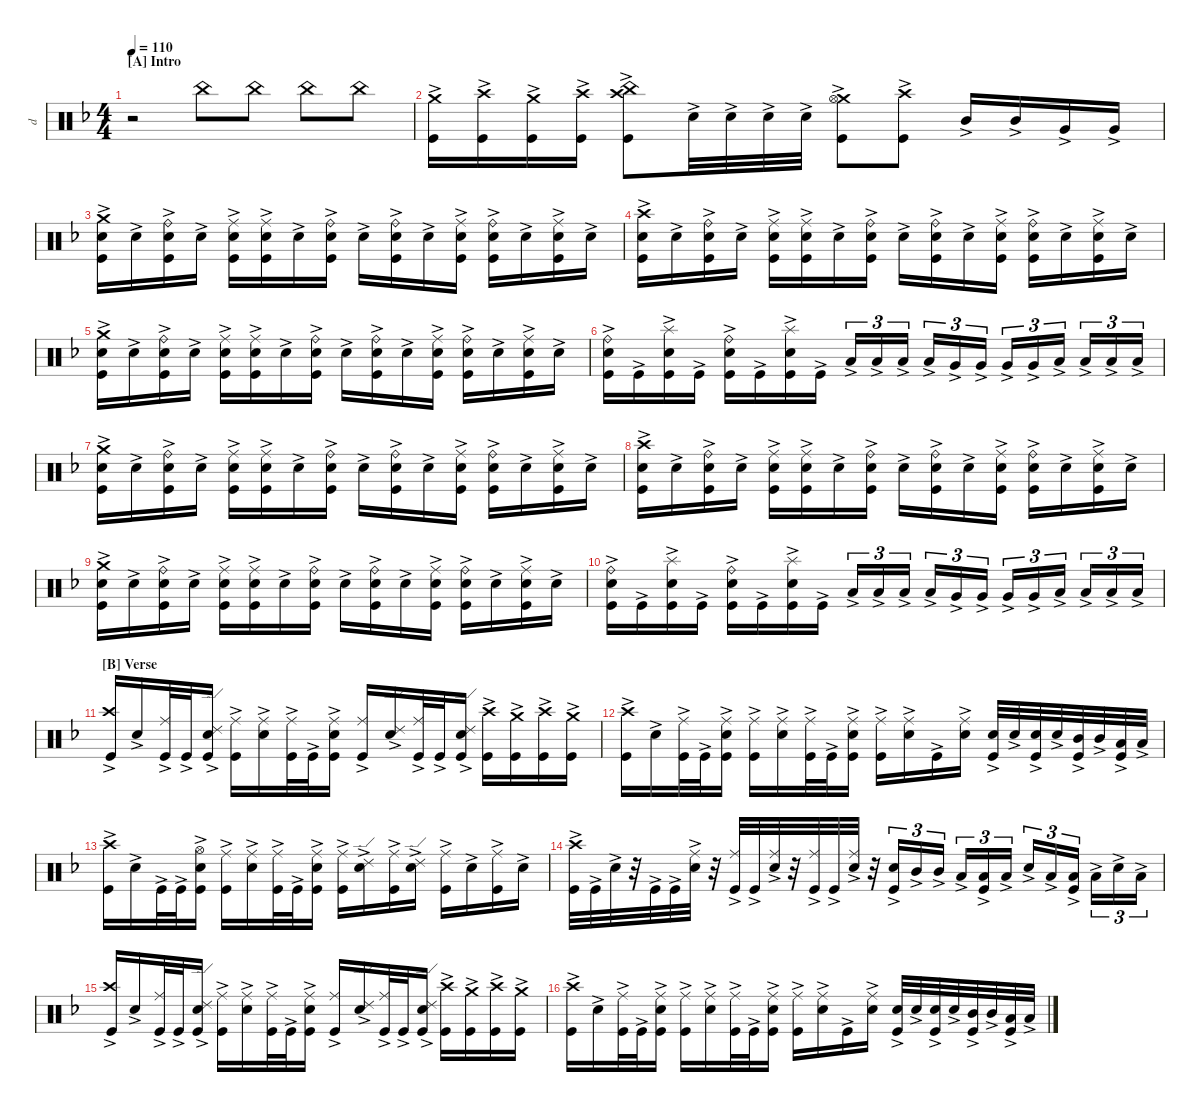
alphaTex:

\defaultSystemsLayout 4
\hideDynamics
\bracketExtendMode nobrackets
\otherSystemsTrackNameOrientation horizontal
\track ("Drumkit" "d") {instrument percussion}
\staff {score}
\articulation defaults
\ts (4 4)
\section ("A" "Intro")
\tempo 110
\clef neutral
\ks dminor
r.2{dy f beam Down} "China (hit)"{acc forcenatural}.8{beam Down} "China (hit)"{acc forcenatural}.8{beam Down} "China (hit)"{acc forcenatural}.8{beam Down} "China (hit)"{acc forcenatural}.8{beam Down} |
("Crash medium (hit)"{ac acc forcenatural} "Kick (hit)"{ac acc forcenatural}).16{dy mf beam Down} ("Crash high (hit)"{ac acc forcenatural} "Kick (hit)"{ac acc forcenatural}).16{beam Down} ("Crash medium (hit)"{ac acc forcenatural} "Kick (hit)"{ac acc forcenatural}).16{beam Down} ("Crash high (hit)"{ac acc forcenatural} "Kick (hit)"{ac acc forcenatural}).16{beam Down} ("China (hit)"{ac acc forcenatural} "Crash high (hit)"{ac acc forcenatural} "Kick (hit)"{ac acc forcenatural}).8{beam Down} "Snare (hit) 2"{ac acc forcenatural}.32{beam Down} "Snare (hit) 2"{ac acc forcenatural}.32{beam Down} "Snare (hit) 2"{ac acc forcenatural}.32{beam Down} "Snare (hit) 2"{ac acc forcenatural}.32{beam Down} ("Crash medium (hit)"{ac acc forcenatural} "Hi-Hat (open)"{ac acc forcenatural} "Kick (hit)"{ac acc forcenatural}).8{beam Down} ("Crash high (hit)"{ac acc forcenatural} "Kick (hit)"{ac acc forcenatural}).8{dy ff beam Down} "Mid Tom (hit)"{ac acc forcenatural}.16{dy mf beam Up} "Mid Tom (hit)"{ac acc forcenatural}.16{beam Up} "Very Low Tom (hit)"{ac acc forcenatural}.16{beam Up} "Very Low Tom (hit)"{ac acc forcenatural}.16{beam Up} |
("Crash medium (hit)"{ac acc forcenatural} "Snare (hit) 2"{ac acc forcenatural} "Kick (hit)"{ac acc forcenatural}).16{beam Down} "Snare (hit) 2"{ac acc forcenatural}.16{beam Down} ("Ride (bell)"{ac acc forcenatural} "Snare (hit) 2"{ac acc forcenatural} "Kick (hit)"{ac acc forcenatural}).16{beam Down} "Snare (hit) 2"{ac acc forcenatural}.16{beam Down} ("Ride (middle)"{ac acc forcenatural} "Snare (hit) 2"{ac acc forcenatural} "Kick (hit)"{ac acc forcenatural}).16{beam Down} ("Ride (middle)"{ac acc forcenatural} "Snare (hit) 2"{ac acc forcenatural} "Kick (hit)"{ac acc forcenatural}).16{beam Down} "Snare (hit) 2"{ac acc forcenatural}.16{beam Down} ("Ride (bell)"{ac acc forcenatural} "Snare (hit) 2"{ac acc forcenatural} "Kick (hit)"{ac acc forcenatural}).16{beam Down} "Snare (hit) 2"{ac acc forcenatural}.16{beam Down} ("Ride (bell)"{ac acc forcenatural} "Snare (hit) 2"{ac acc forcenatural} "Kick (hit)"{ac acc forcenatural}).16{beam Down} "Snare (hit) 2"{ac acc forcenatural}.16{beam Down} ("Ride (middle)"{ac acc forcenatural} "Snare (hit) 2"{ac acc forcenatural} "Kick (hit)"{ac acc forcenatural}).16{beam Down} ("Ride (bell)"{ac acc forcenatural} "Snare (hit) 2"{ac acc forcenatural} "Kick (hit)"{ac acc forcenatural}).16{beam Down} "Snare (hit) 2"{ac acc forcenatural}.16{beam Down} ("Ride (middle)"{ac acc forcenatural} "Snare (hit) 2"{ac acc forcenatural} "Kick (hit)"{ac acc forcenatural}).16{beam Down} "Snare (hit) 2"{ac acc forcenatural}.16{beam Down} |
("Crash high (hit)"{ac acc forcenatural} "Snare (hit) 2"{ac acc forcenatural} "Kick (hit)"{ac acc forcenatural}).16{beam Down} "Snare (hit) 2"{ac acc forcenatural}.16{beam Down} ("Ride (bell)"{ac acc forcenatural} "Snare (hit) 2"{ac acc forcenatural} "Kick (hit)"{ac acc forcenatural}).16{beam Down} "Snare (hit) 2"{ac acc forcenatural}.16{beam Down} ("Ride (middle)"{ac acc forcenatural} "Snare (hit) 2"{ac acc forcenatural} "Kick (hit)"{ac acc forcenatural}).16{beam Down} ("Ride (middle)"{ac acc forcenatural} "Snare (hit) 2"{ac acc forcenatural} "Kick (hit)"{ac acc forcenatural}).16{beam Down} "Snare (hit) 2"{ac acc forcenatural}.16{beam Down} ("Ride (bell)"{ac acc forcenatural} "Snare (hit) 2"{ac acc forcenatural} "Kick (hit)"{ac acc forcenatural}).16{beam Down} "Snare (hit) 2"{ac acc forcenatural}.16{beam Down} ("Ride (bell)"{ac acc forcenatural} "Snare (hit) 2"{ac acc forcenatural} "Kick (hit)"{ac acc forcenatural}).16{beam Down} "Snare (hit) 2"{ac acc forcenatural}.16{beam Down} ("Ride (middle)"{ac acc forcenatural} "Snare (hit) 2"{ac acc forcenatural} "Kick (hit)"{ac acc forcenatural}).16{beam Down} ("Ride (bell)"{ac acc forcenatural} "Snare (hit) 2"{ac acc forcenatural} "Kick (hit)"{ac acc forcenatural}).16{beam Down} "Snare (hit) 2"{ac acc forcenatural}.16{beam Down} ("Ride (middle)"{ac acc forcenatural} "Snare (hit) 2"{ac acc forcenatural} "Kick (hit)"{ac acc forcenatural}).16{beam Down} "Snare (hit) 2"{ac acc forcenatural}.16{beam Down} |
("Crash medium (hit)"{ac acc forcenatural} "Snare (hit) 2"{ac acc forcenatural} "Kick (hit)"{ac acc forcenatural}).16{beam Down} "Snare (hit) 2"{ac acc forcenatural}.16{beam Down} ("Ride (bell)"{ac acc forcenatural} "Snare (hit) 2"{ac acc forcenatural} "Kick (hit)"{ac acc forcenatural}).16{beam Down} "Snare (hit) 2"{ac acc forcenatural}.16{beam Down} ("Ride (middle)"{ac acc forcenatural} "Snare (hit) 2"{ac acc forcenatural} "Kick (hit)"{ac acc forcenatural}).16{beam Down} ("Ride (middle)"{ac acc forcenatural} "Snare (hit) 2"{ac acc forcenatural} "Kick (hit)"{ac acc forcenatural}).16{beam Down} "Snare (hit) 2"{ac acc forcenatural}.16{beam Down} ("Ride (bell)"{ac acc forcenatural} "Snare (hit) 2"{ac acc forcenatural} "Kick (hit)"{ac acc forcenatural}).16{beam Down} "Snare (hit) 2"{ac acc forcenatural}.16{beam Down} ("Ride (bell)"{ac acc forcenatural} "Snare (hit) 2"{ac acc forcenatural} "Kick (hit)"{ac acc forcenatural}).16{beam Down} "Snare (hit) 2"{ac acc forcenatural}.16{beam Down} ("Ride (middle)"{ac acc forcenatural} "Snare (hit) 2"{ac acc forcenatural} "Kick (hit)"{ac acc forcenatural}).16{beam Down} ("Ride (bell)"{ac acc forcenatural} "Snare (hit) 2"{ac acc forcenatural} "Kick (hit)"{ac acc forcenatural}).16{beam Down} "Snare (hit) 2"{ac acc forcenatural}.16{beam Down} ("Ride (middle)"{ac acc forcenatural} "Snare (hit) 2"{ac acc forcenatural} "Kick (hit)"{ac acc forcenatural}).16{beam Down} "Snare (hit) 2"{ac acc forcenatural}.16{beam Down} |
("Kick (hit)"{ac acc forcenatural} "Snare (hit) 2"{ac acc forcenatural} "Ride (bell)"{ac acc forcenatural}).16{beam Down} "Kick (hit)"{ac acc forcenatural}.16{beam Down} ("Kick (hit)"{ac acc forcenatural} "Snare (hit) 2"{ac acc forcenatural} "Splash (hit)"{ac acc forcenatural}).16{beam Down} "Kick (hit)"{ac acc forcenatural}.16{beam Down} ("Kick (hit)"{ac acc forcenatural} "Snare (hit) 2"{ac acc forcenatural} "Ride (bell)"{ac acc forcenatural}).16{beam Down} "Kick (hit)"{ac acc forcenatural}.16{beam Down} ("Kick (hit)"{ac acc forcenatural} "Snare (hit) 2"{ac acc forcenatural} "Splash (hit)"{ac acc forcenatural}).16{beam Down} "Kick (hit)"{ac acc forcenatural}.16{beam Down} "Low Tom (hit)"{ac acc forcenatural}.16{tu (3 2) beam Up} "Low Tom (hit)"{ac acc forcenatural}.16{tu (3 2) beam Up} "Low Tom (hit)"{ac acc forcenatural}.16{tu (3 2) beam Up} "Low Tom (hit)"{ac acc forcenatural}.16{tu (3 2) beam Up} "Very Low Tom (hit)"{ac acc forcenatural}.16{tu (3 2) beam Up} "Very Low Tom (hit)"{ac acc forcenatural}.16{tu (3 2) beam Up} "Very Low Tom (hit)"{ac acc forcenatural}.16{tu (3 2) beam Up} "Very Low Tom (hit)"{ac acc forcenatural}.16{tu (3 2) beam Up} "Low Floor Tom (hit)"{ac acc forcenatural}.16{tu (3 2) beam Up} "Low Floor Tom (hit)"{ac acc forcenatural}.16{tu (3 2) beam Up} "Low Floor Tom (hit)"{ac acc forcenatural}.16{tu (3 2) beam Up} "Low Floor Tom (hit)"{ac acc forcenatural}.16{tu (3 2) beam Up} |
("Crash medium (hit)"{ac acc forcenatural} "Snare (hit) 2"{ac acc forcenatural} "Kick (hit)"{ac acc forcenatural}).16{beam Down} "Snare (hit) 2"{ac acc forcenatural}.16{beam Down} ("Ride (bell)"{ac acc forcenatural} "Snare (hit) 2"{ac acc forcenatural} "Kick (hit)"{ac acc forcenatural}).16{beam Down} "Snare (hit) 2"{ac acc forcenatural}.16{beam Down} ("Ride (middle)"{ac acc forcenatural} "Snare (hit) 2"{ac acc forcenatural} "Kick (hit)"{ac acc forcenatural}).16{beam Down} ("Ride (middle)"{ac acc forcenatural} "Snare (hit) 2"{ac acc forcenatural} "Kick (hit)"{ac acc forcenatural}).16{beam Down} "Snare (hit) 2"{ac acc forcenatural}.16{beam Down} ("Ride (bell)"{ac acc forcenatural} "Snare (hit) 2"{ac acc forcenatural} "Kick (hit)"{ac acc forcenatural}).16{beam Down} "Snare (hit) 2"{ac acc forcenatural}.16{beam Down} ("Ride (bell)"{ac acc forcenatural} "Snare (hit) 2"{ac acc forcenatural} "Kick (hit)"{ac acc forcenatural}).16{beam Down} "Snare (hit) 2"{ac acc forcenatural}.16{beam Down} ("Ride (middle)"{ac acc forcenatural} "Snare (hit) 2"{ac acc forcenatural} "Kick (hit)"{ac acc forcenatural}).16{beam Down} ("Ride (bell)"{ac acc forcenatural} "Snare (hit) 2"{ac acc forcenatural} "Kick (hit)"{ac acc forcenatural}).16{beam Down} "Snare (hit) 2"{ac acc forcenatural}.16{beam Down} ("Ride (middle)"{ac acc forcenatural} "Snare (hit) 2"{ac acc forcenatural} "Kick (hit)"{ac acc forcenatural}).16{beam Down} "Snare (hit) 2"{ac acc forcenatural}.16{beam Down} |
("Crash high (hit)"{ac acc forcenatural} "Snare (hit) 2"{ac acc forcenatural} "Kick (hit)"{ac acc forcenatural}).16{beam Down} "Snare (hit) 2"{ac acc forcenatural}.16{beam Down} ("Ride (bell)"{ac acc forcenatural} "Snare (hit) 2"{ac acc forcenatural} "Kick (hit)"{ac acc forcenatural}).16{beam Down} "Snare (hit) 2"{ac acc forcenatural}.16{beam Down} ("Ride (middle)"{ac acc forcenatural} "Snare (hit) 2"{ac acc forcenatural} "Kick (hit)"{ac acc forcenatural}).16{beam Down} ("Ride (middle)"{ac acc forcenatural} "Snare (hit) 2"{ac acc forcenatural} "Kick (hit)"{ac acc forcenatural}).16{beam Down} "Snare (hit) 2"{ac acc forcenatural}.16{beam Down} ("Ride (bell)"{ac acc forcenatural} "Snare (hit) 2"{ac acc forcenatural} "Kick (hit)"{ac acc forcenatural}).16{beam Down} "Snare (hit) 2"{ac acc forcenatural}.16{beam Down} ("Ride (bell)"{ac acc forcenatural} "Snare (hit) 2"{ac acc forcenatural} "Kick (hit)"{ac acc forcenatural}).16{beam Down} "Snare (hit) 2"{ac acc forcenatural}.16{beam Down} ("Ride (middle)"{ac acc forcenatural} "Snare (hit) 2"{ac acc forcenatural} "Kick (hit)"{ac acc forcenatural}).16{beam Down} ("Ride (bell)"{ac acc forcenatural} "Snare (hit) 2"{ac acc forcenatural} "Kick (hit)"{ac acc forcenatural}).16{beam Down} "Snare (hit) 2"{ac acc forcenatural}.16{beam Down} ("Ride (middle)"{ac acc forcenatural} "Snare (hit) 2"{ac acc forcenatural} "Kick (hit)"{ac acc forcenatural}).16{beam Down} "Snare (hit) 2"{ac acc forcenatural}.16{beam Down} |
("Crash medium (hit)"{ac acc forcenatural} "Snare (hit) 2"{ac acc forcenatural} "Kick (hit)"{ac acc forcenatural}).16{beam Down} "Snare (hit) 2"{ac acc forcenatural}.16{beam Down} ("Ride (bell)"{ac acc forcenatural} "Snare (hit) 2"{ac acc forcenatural} "Kick (hit)"{ac acc forcenatural}).16{beam Down} "Snare (hit) 2"{ac acc forcenatural}.16{beam Down} ("Ride (middle)"{ac acc forcenatural} "Snare (hit) 2"{ac acc forcenatural} "Kick (hit)"{ac acc forcenatural}).16{beam Down} ("Ride (middle)"{ac acc forcenatural} "Snare (hit) 2"{ac acc forcenatural} "Kick (hit)"{ac acc forcenatural}).16{beam Down} "Snare (hit) 2"{ac acc forcenatural}.16{beam Down} ("Ride (bell)"{ac acc forcenatural} "Snare (hit) 2"{ac acc forcenatural} "Kick (hit)"{ac acc forcenatural}).16{beam Down} "Snare (hit) 2"{ac acc forcenatural}.16{beam Down} ("Ride (bell)"{ac acc forcenatural} "Snare (hit) 2"{ac acc forcenatural} "Kick (hit)"{ac acc forcenatural}).16{beam Down} "Snare (hit) 2"{ac acc forcenatural}.16{beam Down} ("Ride (middle)"{ac acc forcenatural} "Snare (hit) 2"{ac acc forcenatural} "Kick (hit)"{ac acc forcenatural}).16{beam Down} ("Ride (bell)"{ac acc forcenatural} "Snare (hit) 2"{ac acc forcenatural} "Kick (hit)"{ac acc forcenatural}).16{beam Down} "Snare (hit) 2"{ac acc forcenatural}.16{beam Down} ("Ride (middle)"{ac acc forcenatural} "Snare (hit) 2"{ac acc forcenatural} "Kick (hit)"{ac acc forcenatural}).16{beam Down} "Snare (hit) 2"{ac acc forcenatural}.16{beam Down} |
("Kick (hit)"{ac acc forcenatural} "Snare (hit) 2"{ac acc forcenatural} "Ride (bell)"{ac acc forcenatural}).16{beam Down} "Kick (hit)"{ac acc forcenatural}.16{beam Down} ("Kick (hit)"{ac acc forcenatural} "Snare (hit) 2"{ac acc forcenatural} "Splash (hit)"{ac acc forcenatural}).16{beam Down} "Kick (hit)"{ac acc forcenatural}.16{beam Down} ("Kick (hit)"{ac acc forcenatural} "Snare (hit) 2"{ac acc forcenatural} "Ride (bell)"{ac acc forcenatural}).16{beam Down} "Kick (hit)"{ac acc forcenatural}.16{beam Down} ("Kick (hit)"{ac acc forcenatural} "Snare (hit) 2"{ac acc forcenatural} "Splash (hit)"{ac acc forcenatural}).16{beam Down} "Kick (hit)"{ac acc forcenatural}.16{beam Down} "Low Tom (hit)"{ac acc forcenatural}.16{tu (3 2) beam Up} "Low Tom (hit)"{ac acc forcenatural}.16{tu (3 2) beam Up} "Low Tom (hit)"{ac acc forcenatural}.16{tu (3 2) beam Up} "Low Tom (hit)"{ac acc forcenatural}.16{tu (3 2) beam Up} "Very Low Tom (hit)"{ac acc forcenatural}.16{tu (3 2) beam Up} "Very Low Tom (hit)"{ac acc forcenatural}.16{tu (3 2) beam Up} "Very Low Tom (hit)"{ac acc forcenatural}.16{tu (3 2) beam Up} "Very Low Tom (hit)"{ac acc forcenatural}.16{tu (3 2) beam Up} "Low Floor Tom (hit)"{ac acc forcenatural}.16{tu (3 2) beam Up} "Low Floor Tom (hit)"{ac acc forcenatural}.16{tu (3 2) beam Up} "Low Floor Tom (hit)"{ac acc forcenatural}.16{tu (3 2) beam Up} "Low Floor Tom (hit)"{ac acc forcenatural}.16{tu (3 2) beam Up} |
\section ("B" "Verse")
("Crash high (hit)"{ac acc forcenatural} "Kick (hit)"{ac acc forcenatural}).16{beam Up} "Snare (hit) 2"{ac acc forcenatural}.16{beam Up} ("Ride (middle)"{ac acc forcenatural} "Kick (hit)"{ac acc forcenatural}).32{beam Up} "Kick (hit)"{ac acc forcenatural}.32{beam Up} ("Ride (edge) 2"{ac acc forcenatural} "Snare (hit) 2"{ac acc forcenatural} "Kick (hit)"{ac acc forcenatural}).16{beam Up} ("Ride (middle)"{ac acc forcenatural} "Kick (hit)"{ac acc forcenatural}).16{beam Down} ("Ride (middle)"{ac acc forcenatural} "Snare (hit) 2"{ac acc forcenatural}).16{beam Down} ("Ride (middle)"{ac acc forcenatural} "Kick (hit)"{ac acc forcenatural}).32{beam Down} "Kick (hit)"{ac acc forcenatural}.32{beam Down} ("Ride (middle)"{ac acc forcenatural} "Snare (hit) 2"{ac acc forcenatural} "Kick (hit)"{ac acc forcenatural}).16{beam Down} ("Ride (middle)"{ac acc forcenatural} "Kick (hit)"{ac acc forcenatural}).16{beam Up} ("Ride (edge) 2"{ac acc forcenatural} "Snare (hit) 2"{ac acc forcenatural}).16{beam Up} ("Ride (middle)"{ac acc forcenatural} "Kick (hit)"{ac acc forcenatural}).32{beam Up} "Kick (hit)"{ac acc forcenatural}.32{beam Up} ("Ride (edge) 2"{ac acc forcenatural} "Snare (hit) 2"{ac acc forcenatural} "Kick (hit)"{ac acc forcenatural}).16{beam Up} ("Crash high (hit)"{ac acc forcenatural} "Kick (hit)"{ac acc forcenatural}).16{beam Down} ("Crash medium (hit)"{ac acc forcenatural} "Kick (hit)"{ac acc forcenatural}).16{beam Down} ("Crash high (hit)"{ac acc forcenatural} "Kick (hit)"{ac acc forcenatural}).16{beam Down} ("Crash medium (hit)"{ac acc forcenatural} "Kick (hit)"{ac acc forcenatural}).16{beam Down} |
("Crash high (hit)"{ac acc forcenatural} "Kick (hit)"{ac acc forcenatural}).16{dy ff beam Down} "Snare (hit) 2"{ac acc forcenatural}.16{dy mf beam Down} ("Ride (middle)"{ac acc forcenatural} "Kick (hit)"{ac acc forcenatural}).32{beam Down} "Kick (hit)"{ac acc forcenatural}.32{beam Down} ("Ride (middle)"{ac acc forcenatural} "Snare (hit) 2"{ac acc forcenatural} "Kick (hit)"{ac acc forcenatural}).16{beam Down} ("Ride (middle)"{ac acc forcenatural} "Kick (hit)"{ac acc forcenatural}).16{beam Down} ("Ride (middle)"{ac acc forcenatural} "Snare (hit) 2"{ac acc forcenatural}).16{beam Down} ("Ride (middle)"{ac acc forcenatural} "Kick (hit)"{ac acc forcenatural}).32{beam Down} "Kick (hit)"{ac acc forcenatural}.32{beam Down} ("Ride (middle)"{ac acc forcenatural} "Snare (hit) 2"{ac acc forcenatural} "Kick (hit)"{ac acc forcenatural}).16{beam Down} ("Ride (middle)"{ac acc forcenatural} "Kick (hit)"{ac acc forcenatural}).16{beam Down} ("Ride (middle)"{ac acc forcenatural} "Snare (hit) 2"{ac acc forcenatural}).16{beam Down} "Kick (hit)"{ac acc forcenatural}.16{beam Down} ("Ride (middle)"{ac acc forcenatural} "Snare (hit) 2"{ac acc forcenatural}).16{beam Down} ("Snare (hit) 2"{ac acc forcenatural} "Kick (hit)"{ac acc forcenatural}).32{beam Up} "Snare (hit) 2"{ac acc forcenatural}.32{beam Up} ("Snare (hit) 2"{ac acc forcenatural} "Kick (hit)"{ac acc forcenatural}).32{beam Up} "Snare (hit) 2"{ac acc forcenatural}.32{beam Up} ("Mid Tom (hit)"{ac acc forcenatural} "Kick (hit)"{ac acc forcenatural}).32{beam Up} "Mid Tom (hit)"{ac acc forcenatural}.32{beam Up} ("Low Tom (hit)"{ac acc forcenatural} "Kick (hit)"{ac acc forcenatural}).32{beam Up} "Low Tom (hit)"{ac acc forcenatural}.32{beam Up} |
("Crash high (hit)"{ac acc forcenatural} "Kick (hit)"{ac acc forcenatural}).16{beam Down} "Snare (hit) 2"{ac acc forcenatural}.16{beam Down} "Kick (hit)"{ac acc forcenatural}.32{beam Down} "Kick (hit)"{ac acc forcenatural}.32{beam Down} ("Hi-Hat (open)"{ac acc forcenatural} "Snare (hit) 2"{ac acc forcenatural} "Kick (hit)"{ac acc forcenatural}).16{beam Down} ("Ride (middle)"{ac acc forcenatural} "Kick (hit)"{ac acc forcenatural}).16{beam Down} ("Ride (middle)"{ac acc forcenatural} "Snare (hit) 2"{ac acc forcenatural}).16{beam Down} ("Ride (middle)"{ac acc forcenatural} "Kick (hit)"{ac acc forcenatural}).32{beam Down} "Kick (hit)"{ac acc forcenatural}.32{beam Down} ("Ride (middle)"{ac acc forcenatural} "Snare (hit) 2"{ac acc forcenatural} "Kick (hit)"{ac acc forcenatural}).16{beam Down} ("Ride (middle)"{ac acc forcenatural} "Kick (hit)"{ac acc forcenatural}).16{beam Down} ("Ride (edge) 2"{ac acc forcenatural} "Snare (hit) 2"{ac acc forcenatural}).16{beam Down} ("Ride (middle)"{ac acc forcenatural} "Kick (hit)"{ac acc forcenatural}).16{beam Down} ("Ride (edge) 2"{ac acc forcenatural} "Snare (hit) 2"{ac acc forcenatural}).16{beam Down} ("Ride (middle)"{ac acc forcenatural} "Kick (hit)"{ac acc forcenatural}).16{beam Down} "Snare (hit) 2"{ac acc forcenatural}.16{beam Down} ("Ride (middle)"{ac acc forcenatural} "Kick (hit)"{ac acc forcenatural}).16{beam Down} "Snare (hit) 2"{ac acc forcenatural}.16{beam Down} |
("Crash high (hit)"{ac acc forcenatural} "Kick (hit)"{ac acc forcenatural}).32{beam Down} "Kick (hit)"{ac acc forcenatural}.32{beam Down} "Snare (hit) 2"{ac acc forcenatural}.32{beam Down} r.32{beam Down} "Kick (hit)"{ac acc forcenatural}.32{beam Down} "Kick (hit)"{ac acc forcenatural}.32{beam Down} ("Ride (middle)"{ac acc forcenatural} "Snare (hit) 2"{ac acc forcenatural}).32{beam Down} r.32{beam Down} ("Ride (middle)"{ac acc forcenatural} "Kick (hit)"{ac acc forcenatural}).32{beam Up} "Kick (hit)"{ac acc forcenatural}.32{beam Up} ("Ride (middle)"{ac acc forcenatural} "Snare (hit) 2"{ac acc forcenatural}).32{beam Up} r.32{beam Up} ("Ride (middle)"{ac acc forcenatural} "Kick (hit)"{ac acc forcenatural}).32{beam Up} "Kick (hit)"{ac acc forcenatural}.32{beam Up} ("Ride (middle)"{ac acc forcenatural} "Snare (hit) 2"{ac acc forcenatural}).32{beam Up} r.32{beam Up} ("Snare (hit) 2"{ac acc forcenatural} "Kick (hit)"{ac acc forcenatural}).16{tu (3 2) beam Up} "Mid Tom (hit)"{ac acc forcenatural}.16{tu (3 2) beam Up} "Mid Tom (hit)"{ac acc forcenatural}.16{tu (3 2) beam Up} "Low Tom (hit)"{ac acc forcenatural}.16{tu (3 2) beam Up} ("Low Tom (hit)"{ac acc forcenatural} "Kick (hit)"{ac acc forcenatural}).16{tu (3 2) beam Up} "Low Tom (hit)"{ac acc forcenatural}.16{tu (3 2) beam Up} "Snare (hit) 2"{ac acc forcenatural}.16{tu (3 2) beam Up} "Low Tom (hit)"{ac acc forcenatural}.16{tu (3 2) beam Up} ("Low Tom (hit)"{ac acc forcenatural} "Kick (hit)"{ac acc forcenatural}).16{tu (3 2) beam Up} "Low Tom (hit)"{ac acc forcenatural}.16{tu (3 2) beam Down} "Snare (hit) 2"{ac acc forcenatural}.16{tu (3 2) beam Down} "Low Tom (hit)"{ac acc forcenatural}.16{tu (3 2) beam Down} |
("Crash high (hit)"{ac acc forcenatural} "Kick (hit)"{ac acc forcenatural}).16{beam Up} "Snare (hit) 2"{ac acc forcenatural}.16{beam Up} ("Ride (middle)"{ac acc forcenatural} "Kick (hit)"{ac acc forcenatural}).32{beam Up} "Kick (hit)"{ac acc forcenatural}.32{beam Up} ("Ride (edge) 2"{ac acc forcenatural} "Snare (hit) 2"{ac acc forcenatural} "Kick (hit)"{ac acc forcenatural}).16{beam Up} ("Ride (middle)"{ac acc forcenatural} "Kick (hit)"{ac acc forcenatural}).16{beam Down} ("Ride (middle)"{ac acc forcenatural} "Snare (hit) 2"{ac acc forcenatural}).16{beam Down} ("Ride (middle)"{ac acc forcenatural} "Kick (hit)"{ac acc forcenatural}).32{beam Down} "Kick (hit)"{ac acc forcenatural}.32{beam Down} ("Ride (middle)"{ac acc forcenatural} "Snare (hit) 2"{ac acc forcenatural} "Kick (hit)"{ac acc forcenatural}).16{beam Down} ("Ride (middle)"{ac acc forcenatural} "Kick (hit)"{ac acc forcenatural}).16{beam Up} ("Ride (edge) 2"{ac acc forcenatural} "Snare (hit) 2"{ac acc forcenatural}).16{beam Up} ("Ride (middle)"{ac acc forcenatural} "Kick (hit)"{ac acc forcenatural}).32{beam Up} "Kick (hit)"{ac acc forcenatural}.32{beam Up} ("Ride (edge) 2"{ac acc forcenatural} "Snare (hit) 2"{ac acc forcenatural} "Kick (hit)"{ac acc forcenatural}).16{beam Up} ("Crash high (hit)"{ac acc forcenatural} "Kick (hit)"{ac acc forcenatural}).16{beam Down} ("Crash medium (hit)"{ac acc forcenatural} "Kick (hit)"{ac acc forcenatural}).16{beam Down} ("Crash high (hit)"{ac acc forcenatural} "Kick (hit)"{ac acc forcenatural}).16{beam Down} ("Crash medium (hit)"{ac acc forcenatural} "Kick (hit)"{ac acc forcenatural}).16{beam Down} |
("Crash high (hit)"{ac acc forcenatural} "Kick (hit)"{ac acc forcenatural}).16{dy ff beam Down} "Snare (hit) 2"{ac acc forcenatural}.16{dy mf beam Down} ("Ride (middle)"{ac acc forcenatural} "Kick (hit)"{ac acc forcenatural}).32{beam Down} "Kick (hit)"{ac acc forcenatural}.32{beam Down} ("Ride (middle)"{ac acc forcenatural} "Snare (hit) 2"{ac acc forcenatural} "Kick (hit)"{ac acc forcenatural}).16{beam Down} ("Ride (middle)"{ac acc forcenatural} "Kick (hit)"{ac acc forcenatural}).16{beam Down} ("Ride (middle)"{ac acc forcenatural} "Snare (hit) 2"{ac acc forcenatural}).16{beam Down} ("Ride (middle)"{ac acc forcenatural} "Kick (hit)"{ac acc forcenatural}).32{beam Down} "Kick (hit)"{ac acc forcenatural}.32{beam Down} ("Ride (middle)"{ac acc forcenatural} "Snare (hit) 2"{ac acc forcenatural} "Kick (hit)"{ac acc forcenatural}).16{beam Down} ("Ride (middle)"{ac acc forcenatural} "Kick (hit)"{ac acc forcenatural}).16{beam Down} ("Ride (middle)"{ac acc forcenatural} "Snare (hit) 2"{ac acc forcenatural}).16{beam Down} "Kick (hit)"{ac acc forcenatural}.16{beam Down} ("Ride (middle)"{ac acc forcenatural} "Snare (hit) 2"{ac acc forcenatural}).16{beam Down} ("Snare (hit) 2"{ac acc forcenatural} "Kick (hit)"{ac acc forcenatural}).32{beam Up} "Snare (hit) 2"{ac acc forcenatural}.32{beam Up} ("Snare (hit) 2"{ac acc forcenatural} "Kick (hit)"{ac acc forcenatural}).32{beam Up} "Snare (hit) 2"{ac acc forcenatural}.32{beam Up} ("Mid Tom (hit)"{ac acc forcenatural} "Kick (hit)"{ac acc forcenatural}).32{beam Up} "Mid Tom (hit)"{ac acc forcenatural}.32{beam Up} ("Low Tom (hit)"{ac acc forcenatural} "Kick (hit)"{ac acc forcenatural}).32{beam Up} "Low Tom (hit)"{ac acc forcenatural}.32{beam Up}
